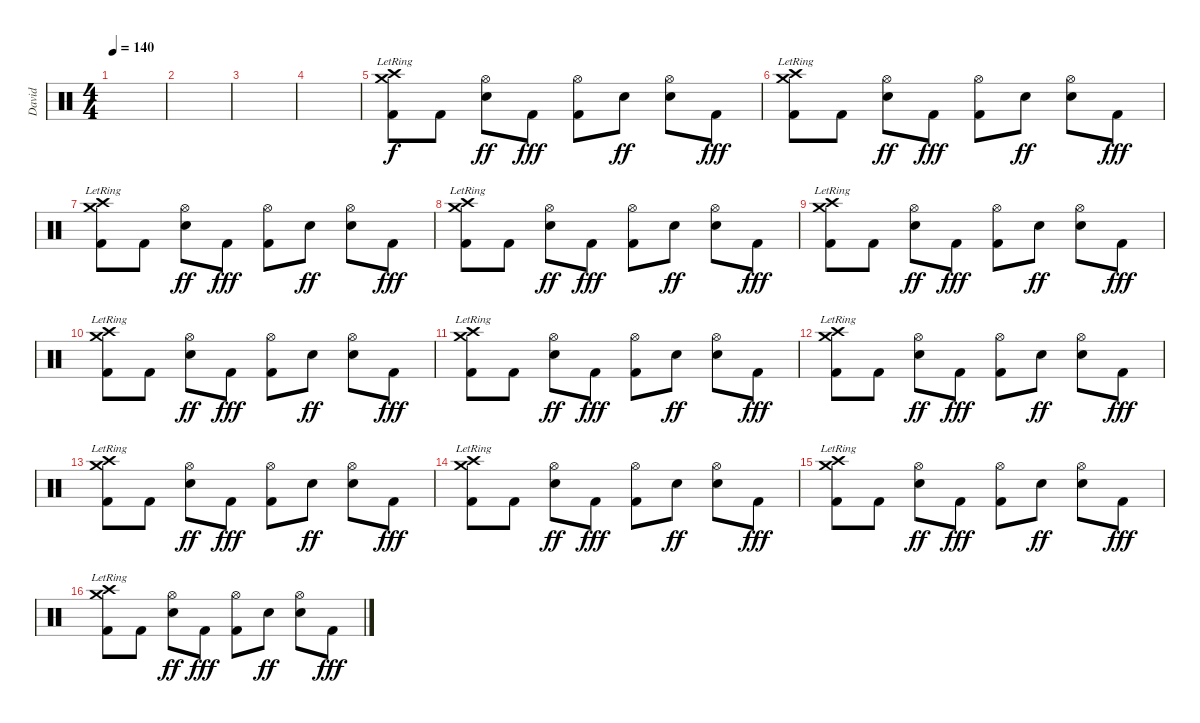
\track ("David " "David ") {instrument percussion}
\staff {score}
\articulation defaults
\ts (4 4)
\tempo 140
\clef neutral
\ks c
|
|
|
|
("Crash high (hit)"{lr} "Crash medium (hit)"{lr} "Kick (hit) 2").8 "Kick (hit) 2".8 ("Hi-Hat (open)" "Electric Snare (hit)").8{dy ff} "Kick (hit) 2".8{dy fff} ("Hi-Hat (open)" "Kick (hit) 2").8 "Electric Snare (hit)".8{dy ff} ("Hi-Hat (open)" "Electric Snare (hit)").8 "Kick (hit) 2".8{dy fff} |
("Crash high (hit)"{lr} "Crash medium (hit)"{lr} "Kick (hit) 2").8 "Kick (hit) 2".8 ("Hi-Hat (open)" "Electric Snare (hit)").8{dy ff} "Kick (hit) 2".8{dy fff} ("Hi-Hat (open)" "Kick (hit) 2").8 "Electric Snare (hit)".8{dy ff} ("Hi-Hat (open)" "Electric Snare (hit)").8 "Kick (hit) 2".8{dy fff} |
("Crash high (hit)"{lr} "Crash medium (hit)"{lr} "Kick (hit) 2").8 "Kick (hit) 2".8 ("Hi-Hat (open)" "Electric Snare (hit)").8{dy ff} "Kick (hit) 2".8{dy fff} ("Hi-Hat (open)" "Kick (hit) 2").8 "Electric Snare (hit)".8{dy ff} ("Hi-Hat (open)" "Electric Snare (hit)").8 "Kick (hit) 2".8{dy fff} |
("Crash high (hit)"{lr} "Crash medium (hit)"{lr} "Kick (hit) 2").8 "Kick (hit) 2".8 ("Hi-Hat (open)" "Electric Snare (hit)").8{dy ff} "Kick (hit) 2".8{dy fff} ("Hi-Hat (open)" "Kick (hit) 2").8 "Electric Snare (hit)".8{dy ff} ("Hi-Hat (open)" "Electric Snare (hit)").8 "Kick (hit) 2".8{dy fff} |
("Crash high (hit)"{lr} "Crash medium (hit)"{lr} "Kick (hit) 2").8 "Kick (hit) 2".8 ("Hi-Hat (open)" "Electric Snare (hit)").8{dy ff} "Kick (hit) 2".8{dy fff} ("Hi-Hat (open)" "Kick (hit) 2").8 "Electric Snare (hit)".8{dy ff} ("Hi-Hat (open)" "Electric Snare (hit)").8 "Kick (hit) 2".8{dy fff} |
("Crash high (hit)"{lr} "Crash medium (hit)"{lr} "Kick (hit) 2").8 "Kick (hit) 2".8 ("Hi-Hat (open)" "Electric Snare (hit)").8{dy ff} "Kick (hit) 2".8{dy fff} ("Hi-Hat (open)" "Kick (hit) 2").8 "Electric Snare (hit)".8{dy ff} ("Hi-Hat (open)" "Electric Snare (hit)").8 "Kick (hit) 2".8{dy fff} |
("Crash high (hit)"{lr} "Crash medium (hit)"{lr} "Kick (hit) 2").8 "Kick (hit) 2".8 ("Hi-Hat (open)" "Electric Snare (hit)").8{dy ff} "Kick (hit) 2".8{dy fff} ("Hi-Hat (open)" "Kick (hit) 2").8 "Electric Snare (hit)".8{dy ff} ("Hi-Hat (open)" "Electric Snare (hit)").8 "Kick (hit) 2".8{dy fff} |
("Crash high (hit)"{lr} "Crash medium (hit)"{lr} "Kick (hit) 2").8 "Kick (hit) 2".8 ("Hi-Hat (open)" "Electric Snare (hit)").8{dy ff} "Kick (hit) 2".8{dy fff} ("Hi-Hat (open)" "Kick (hit) 2").8 "Electric Snare (hit)".8{dy ff} ("Hi-Hat (open)" "Electric Snare (hit)").8 "Kick (hit) 2".8{dy fff} |
("Crash high (hit)"{lr} "Crash medium (hit)"{lr} "Kick (hit) 2").8 "Kick (hit) 2".8 ("Hi-Hat (open)" "Electric Snare (hit)").8{dy ff} "Kick (hit) 2".8{dy fff} ("Hi-Hat (open)" "Kick (hit) 2").8 "Electric Snare (hit)".8{dy ff} ("Hi-Hat (open)" "Electric Snare (hit)").8 "Kick (hit) 2".8{dy fff} |
("Crash high (hit)"{lr} "Crash medium (hit)"{lr} "Kick (hit) 2").8 "Kick (hit) 2".8 ("Hi-Hat (open)" "Electric Snare (hit)").8{dy ff} "Kick (hit) 2".8{dy fff} ("Hi-Hat (open)" "Kick (hit) 2").8 "Electric Snare (hit)".8{dy ff} ("Hi-Hat (open)" "Electric Snare (hit)").8 "Kick (hit) 2".8{dy fff} |
("Crash high (hit)"{lr} "Crash medium (hit)"{lr} "Kick (hit) 2").8 "Kick (hit) 2".8 ("Hi-Hat (open)" "Electric Snare (hit)").8{dy ff} "Kick (hit) 2".8{dy fff} ("Hi-Hat (open)" "Kick (hit) 2").8 "Electric Snare (hit)".8{dy ff} ("Hi-Hat (open)" "Electric Snare (hit)").8 "Kick (hit) 2".8{dy fff} |
("Crash high (hit)"{lr} "Crash medium (hit)"{lr} "Kick (hit) 2").8 "Kick (hit) 2".8 ("Hi-Hat (open)" "Electric Snare (hit)").8{dy ff} "Kick (hit) 2".8{dy fff} ("Hi-Hat (open)" "Kick (hit) 2").8 "Electric Snare (hit)".8{dy ff} ("Hi-Hat (open)" "Electric Snare (hit)").8 "Kick (hit) 2".8{dy fff}
